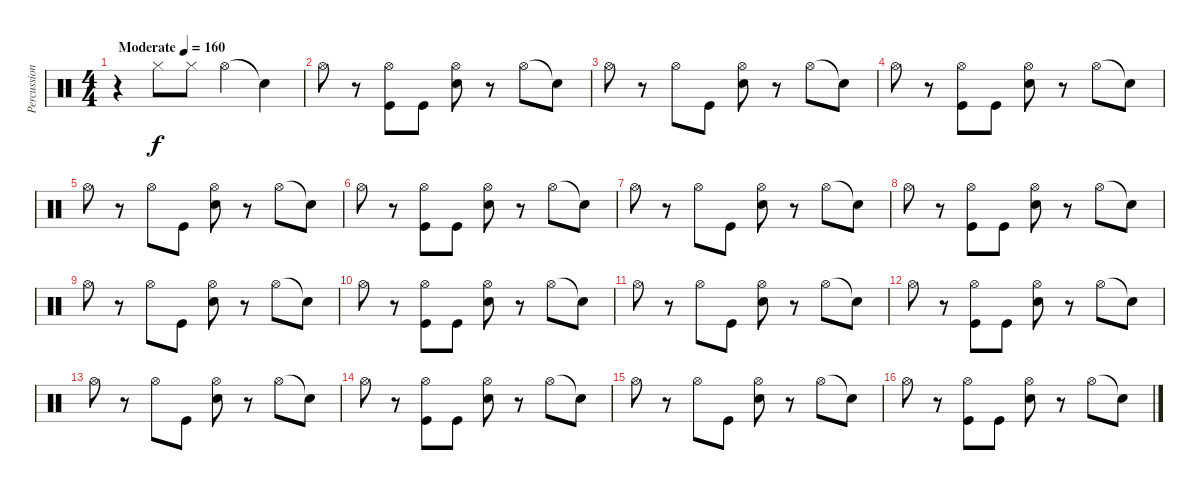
\track ("Percussion" "Percussion") {instrument percussion}
\staff {score}
\articulation defaults
\ts (4 4)
\tempo (160 "Moderate")
\clef neutral
\ks c
r.4{dy f} "Hi-Hat (closed)".8 "Hi-Hat (closed)".8 "Hi-Hat (open)".4 "Snare (hit)"{t}.4 |
"Hi-Hat (open)".8 r.8 ("Hi-Hat (open)" "Kick (hit)").8 "Kick (hit)".8 ("Hi-Hat (open)" "Snare (hit) 2").8 r.8 "Hi-Hat (open)".8 "Snare (hit)"{t}.8 |
"Hi-Hat (open)".8 r.8 "Hi-Hat (open)".8 "Kick (hit)".8 ("Hi-Hat (open)" "Snare (hit) 2").8 r.8 "Hi-Hat (open)".8 "Snare (hit)"{t}.8 |
"Hi-Hat (open)".8 r.8 ("Hi-Hat (open)" "Kick (hit)").8 "Kick (hit)".8 ("Hi-Hat (open)" "Snare (hit) 2").8 r.8 "Hi-Hat (open)".8 "Snare (hit)"{t}.8 |
"Hi-Hat (open)".8 r.8 "Hi-Hat (open)".8 "Kick (hit)".8 ("Hi-Hat (open)" "Snare (hit) 2").8 r.8 "Hi-Hat (open)".8 "Snare (hit)"{t}.8 |
"Hi-Hat (open)".8 r.8 ("Hi-Hat (open)" "Kick (hit)").8 "Kick (hit)".8 ("Hi-Hat (open)" "Snare (hit) 2").8 r.8 "Hi-Hat (open)".8 "Snare (hit)"{t}.8 |
"Hi-Hat (open)".8 r.8 "Hi-Hat (open)".8 "Kick (hit)".8 ("Hi-Hat (open)" "Snare (hit) 2").8 r.8 "Hi-Hat (open)".8 "Snare (hit)"{t}.8 |
"Hi-Hat (open)".8 r.8 ("Hi-Hat (open)" "Kick (hit)").8 "Kick (hit)".8 ("Hi-Hat (open)" "Snare (hit) 2").8 r.8 "Hi-Hat (open)".8 "Snare (hit)"{t}.8 |
"Hi-Hat (open)".8 r.8 "Hi-Hat (open)".8 "Kick (hit)".8 ("Hi-Hat (open)" "Snare (hit) 2").8 r.8 "Hi-Hat (open)".8 "Snare (hit)"{t}.8 |
"Hi-Hat (open)".8 r.8 ("Hi-Hat (open)" "Kick (hit)").8 "Kick (hit)".8 ("Hi-Hat (open)" "Snare (hit) 2").8 r.8 "Hi-Hat (open)".8 "Snare (hit)"{t}.8 |
"Hi-Hat (open)".8 r.8 "Hi-Hat (open)".8 "Kick (hit)".8 ("Hi-Hat (open)" "Snare (hit) 2").8 r.8 "Hi-Hat (open)".8 "Snare (hit)"{t}.8 |
"Hi-Hat (open)".8 r.8 ("Hi-Hat (open)" "Kick (hit)").8 "Kick (hit)".8 ("Hi-Hat (open)" "Snare (hit) 2").8 r.8 "Hi-Hat (open)".8 "Snare (hit)"{t}.8 |
"Hi-Hat (open)".8 r.8 "Hi-Hat (open)".8 "Kick (hit)".8 ("Hi-Hat (open)" "Snare (hit) 2").8 r.8 "Hi-Hat (open)".8 "Snare (hit)"{t}.8 |
"Hi-Hat (open)".8 r.8 ("Hi-Hat (open)" "Kick (hit)").8 "Kick (hit)".8 ("Hi-Hat (open)" "Snare (hit) 2").8 r.8 "Hi-Hat (open)".8 "Snare (hit)"{t}.8 |
"Hi-Hat (open)".8 r.8 "Hi-Hat (open)".8 "Kick (hit)".8 ("Hi-Hat (open)" "Snare (hit) 2").8 r.8 "Hi-Hat (open)".8 "Snare (hit)"{t}.8 |
"Hi-Hat (open)".8 r.8 ("Hi-Hat (open)" "Kick (hit)").8 "Kick (hit)".8 ("Hi-Hat (open)" "Snare (hit) 2").8 r.8 "Hi-Hat (open)".8 "Snare (hit)"{t}.8
